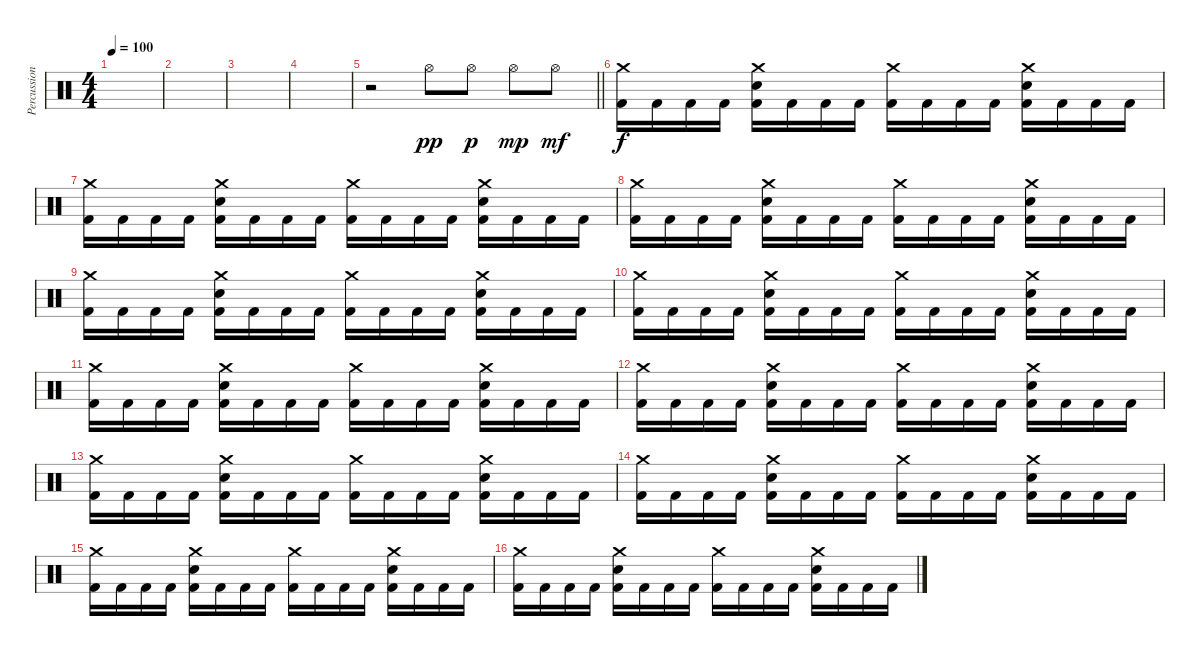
\track ("Percussion" "Percussion") {instrument percussion}
\staff {score}
\articulation defaults
\ts (4 4)
\tempo 100
\clef neutral
\ks aminor
|
|
|
|
\barLineRight lightlight
r.2 "Hi-Hat (open)".8{dy pp} "Hi-Hat (open)".8{dy p} "Hi-Hat (open)".8{dy mp} "Hi-Hat (open)".8{dy mf} |
\section ("" "")
("Crash medium (hit)" "Kick (hit) 2").16{dy f} "Kick (hit) 2".16 "Kick (hit) 2".16 "Kick (hit) 2".16 ("Crash medium (hit)" "Snare (hit) 2" "Kick (hit) 2").16 "Kick (hit) 2".16 "Kick (hit) 2".16 "Kick (hit) 2".16 ("Crash medium (hit)" "Kick (hit) 2").16 "Kick (hit) 2".16 "Kick (hit) 2".16 "Kick (hit) 2".16 ("Crash medium (hit)" "Snare (hit) 2" "Kick (hit) 2").16 "Kick (hit) 2".16 "Kick (hit) 2".16 "Kick (hit) 2".16 |
("Crash medium (hit)" "Kick (hit) 2").16 "Kick (hit) 2".16 "Kick (hit) 2".16 "Kick (hit) 2".16 ("Crash medium (hit)" "Snare (hit) 2" "Kick (hit) 2").16 "Kick (hit) 2".16 "Kick (hit) 2".16 "Kick (hit) 2".16 ("Crash medium (hit)" "Kick (hit) 2").16 "Kick (hit) 2".16 "Kick (hit) 2".16 "Kick (hit) 2".16 ("Crash medium (hit)" "Snare (hit) 2" "Kick (hit) 2").16 "Kick (hit) 2".16 "Kick (hit) 2".16 "Kick (hit) 2".16 |
("Crash medium (hit)" "Kick (hit) 2").16 "Kick (hit) 2".16 "Kick (hit) 2".16 "Kick (hit) 2".16 ("Crash medium (hit)" "Snare (hit) 2" "Kick (hit) 2").16 "Kick (hit) 2".16 "Kick (hit) 2".16 "Kick (hit) 2".16 ("Crash medium (hit)" "Kick (hit) 2").16 "Kick (hit) 2".16 "Kick (hit) 2".16 "Kick (hit) 2".16 ("Crash medium (hit)" "Snare (hit) 2" "Kick (hit) 2").16 "Kick (hit) 2".16 "Kick (hit) 2".16 "Kick (hit) 2".16 |
("Crash medium (hit)" "Kick (hit) 2").16 "Kick (hit) 2".16 "Kick (hit) 2".16 "Kick (hit) 2".16 ("Crash medium (hit)" "Snare (hit) 2" "Kick (hit) 2").16 "Kick (hit) 2".16 "Kick (hit) 2".16 "Kick (hit) 2".16 ("Crash medium (hit)" "Kick (hit) 2").16 "Kick (hit) 2".16 "Kick (hit) 2".16 "Kick (hit) 2".16 ("Crash medium (hit)" "Snare (hit) 2" "Kick (hit) 2").16 "Kick (hit) 2".16 "Kick (hit) 2".16 "Kick (hit) 2".16 |
("Crash medium (hit)" "Kick (hit) 2").16 "Kick (hit) 2".16 "Kick (hit) 2".16 "Kick (hit) 2".16 ("Crash medium (hit)" "Snare (hit) 2" "Kick (hit) 2").16 "Kick (hit) 2".16 "Kick (hit) 2".16 "Kick (hit) 2".16 ("Crash medium (hit)" "Kick (hit) 2").16 "Kick (hit) 2".16 "Kick (hit) 2".16 "Kick (hit) 2".16 ("Crash medium (hit)" "Snare (hit) 2" "Kick (hit) 2").16 "Kick (hit) 2".16 "Kick (hit) 2".16 "Kick (hit) 2".16 |
("Crash medium (hit)" "Kick (hit) 2").16 "Kick (hit) 2".16 "Kick (hit) 2".16 "Kick (hit) 2".16 ("Crash medium (hit)" "Snare (hit) 2" "Kick (hit) 2").16 "Kick (hit) 2".16 "Kick (hit) 2".16 "Kick (hit) 2".16 ("Crash medium (hit)" "Kick (hit) 2").16 "Kick (hit) 2".16 "Kick (hit) 2".16 "Kick (hit) 2".16 ("Crash medium (hit)" "Snare (hit) 2" "Kick (hit) 2").16 "Kick (hit) 2".16 "Kick (hit) 2".16 "Kick (hit) 2".16 |
("Crash medium (hit)" "Kick (hit) 2").16 "Kick (hit) 2".16 "Kick (hit) 2".16 "Kick (hit) 2".16 ("Crash medium (hit)" "Snare (hit) 2" "Kick (hit) 2").16 "Kick (hit) 2".16 "Kick (hit) 2".16 "Kick (hit) 2".16 ("Crash medium (hit)" "Kick (hit) 2").16 "Kick (hit) 2".16 "Kick (hit) 2".16 "Kick (hit) 2".16 ("Crash medium (hit)" "Snare (hit) 2" "Kick (hit) 2").16 "Kick (hit) 2".16 "Kick (hit) 2".16 "Kick (hit) 2".16 |
("Crash medium (hit)" "Kick (hit) 2").16 "Kick (hit) 2".16 "Kick (hit) 2".16 "Kick (hit) 2".16 ("Crash medium (hit)" "Snare (hit) 2" "Kick (hit) 2").16 "Kick (hit) 2".16 "Kick (hit) 2".16 "Kick (hit) 2".16 ("Crash medium (hit)" "Kick (hit) 2").16 "Kick (hit) 2".16 "Kick (hit) 2".16 "Kick (hit) 2".16 ("Crash medium (hit)" "Snare (hit) 2" "Kick (hit) 2").16 "Kick (hit) 2".16 "Kick (hit) 2".16 "Kick (hit) 2".16 |
("Crash medium (hit)" "Kick (hit) 2").16 "Kick (hit) 2".16 "Kick (hit) 2".16 "Kick (hit) 2".16 ("Crash medium (hit)" "Snare (hit) 2" "Kick (hit) 2").16 "Kick (hit) 2".16 "Kick (hit) 2".16 "Kick (hit) 2".16 ("Crash medium (hit)" "Kick (hit) 2").16 "Kick (hit) 2".16 "Kick (hit) 2".16 "Kick (hit) 2".16 ("Crash medium (hit)" "Snare (hit) 2" "Kick (hit) 2").16 "Kick (hit) 2".16 "Kick (hit) 2".16 "Kick (hit) 2".16 |
("Crash medium (hit)" "Kick (hit) 2").16 "Kick (hit) 2".16 "Kick (hit) 2".16 "Kick (hit) 2".16 ("Crash medium (hit)" "Snare (hit) 2" "Kick (hit) 2").16 "Kick (hit) 2".16 "Kick (hit) 2".16 "Kick (hit) 2".16 ("Crash medium (hit)" "Kick (hit) 2").16 "Kick (hit) 2".16 "Kick (hit) 2".16 "Kick (hit) 2".16 ("Crash medium (hit)" "Snare (hit) 2" "Kick (hit) 2").16 "Kick (hit) 2".16 "Kick (hit) 2".16 "Kick (hit) 2".16 |
("Crash medium (hit)" "Kick (hit) 2").16 "Kick (hit) 2".16 "Kick (hit) 2".16 "Kick (hit) 2".16 ("Crash medium (hit)" "Snare (hit) 2" "Kick (hit) 2").16 "Kick (hit) 2".16 "Kick (hit) 2".16 "Kick (hit) 2".16 ("Crash medium (hit)" "Kick (hit) 2").16 "Kick (hit) 2".16 "Kick (hit) 2".16 "Kick (hit) 2".16 ("Crash medium (hit)" "Snare (hit) 2" "Kick (hit) 2").16 "Kick (hit) 2".16 "Kick (hit) 2".16 "Kick (hit) 2".16
